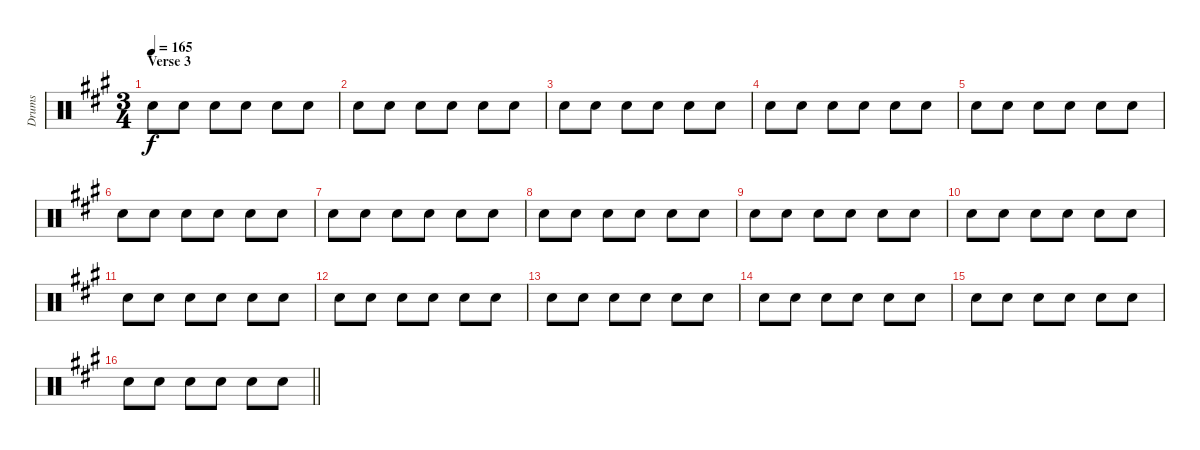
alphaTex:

\track ("Drums" "Drums") {instrument percussion}
\staff {score}
\articulation defaults
\ts (3 4)
\section ("" "Verse 3")
\tempo 165
\clef neutral
\ks a "Snare (hit) 2".8{dy f} "Snare (hit) 2".8 "Snare (hit) 2".8 "Snare (hit) 2".8 "Snare (hit) 2".8 "Snare (hit) 2".8
|
"Snare (hit) 2".8 "Snare (hit) 2".8 "Snare (hit) 2".8 "Snare (hit) 2".8 "Snare (hit) 2".8 "Snare (hit) 2".8 |
"Snare (hit) 2".8 "Snare (hit) 2".8 "Snare (hit) 2".8 "Snare (hit) 2".8 "Snare (hit) 2".8 "Snare (hit) 2".8 |
"Snare (hit) 2".8 "Snare (hit) 2".8 "Snare (hit) 2".8 "Snare (hit) 2".8 "Snare (hit) 2".8 "Snare (hit) 2".8 |
"Snare (hit) 2".8 "Snare (hit) 2".8 "Snare (hit) 2".8 "Snare (hit) 2".8 "Snare (hit) 2".8 "Snare (hit) 2".8 |
"Snare (hit) 2".8 "Snare (hit) 2".8 "Snare (hit) 2".8 "Snare (hit) 2".8 "Snare (hit) 2".8 "Snare (hit) 2".8 |
"Snare (hit) 2".8 "Snare (hit) 2".8 "Snare (hit) 2".8 "Snare (hit) 2".8 "Snare (hit) 2".8 "Snare (hit) 2".8 |
"Snare (hit) 2".8 "Snare (hit) 2".8 "Snare (hit) 2".8 "Snare (hit) 2".8 "Snare (hit) 2".8 "Snare (hit) 2".8 |
"Snare (hit) 2".8 "Snare (hit) 2".8 "Snare (hit) 2".8 "Snare (hit) 2".8 "Snare (hit) 2".8 "Snare (hit) 2".8 |
"Snare (hit) 2".8 "Snare (hit) 2".8 "Snare (hit) 2".8 "Snare (hit) 2".8 "Snare (hit) 2".8 "Snare (hit) 2".8 |
"Snare (hit) 2".8 "Snare (hit) 2".8 "Snare (hit) 2".8 "Snare (hit) 2".8 "Snare (hit) 2".8 "Snare (hit) 2".8 |
"Snare (hit) 2".8 "Snare (hit) 2".8 "Snare (hit) 2".8 "Snare (hit) 2".8 "Snare (hit) 2".8 "Snare (hit) 2".8 |
"Snare (hit) 2".8 "Snare (hit) 2".8 "Snare (hit) 2".8 "Snare (hit) 2".8 "Snare (hit) 2".8 "Snare (hit) 2".8 |
"Snare (hit) 2".8 "Snare (hit) 2".8 "Snare (hit) 2".8 "Snare (hit) 2".8 "Snare (hit) 2".8 "Snare (hit) 2".8 |
"Snare (hit) 2".8 "Snare (hit) 2".8 "Snare (hit) 2".8 "Snare (hit) 2".8 "Snare (hit) 2".8 "Snare (hit) 2".8 |
\barLineRight lightlight "Snare (hit) 2".8 "Snare (hit) 2".8 "Snare (hit) 2".8 "Snare (hit) 2".8 "Snare (hit) 2".8 "Snare (hit) 2".8
